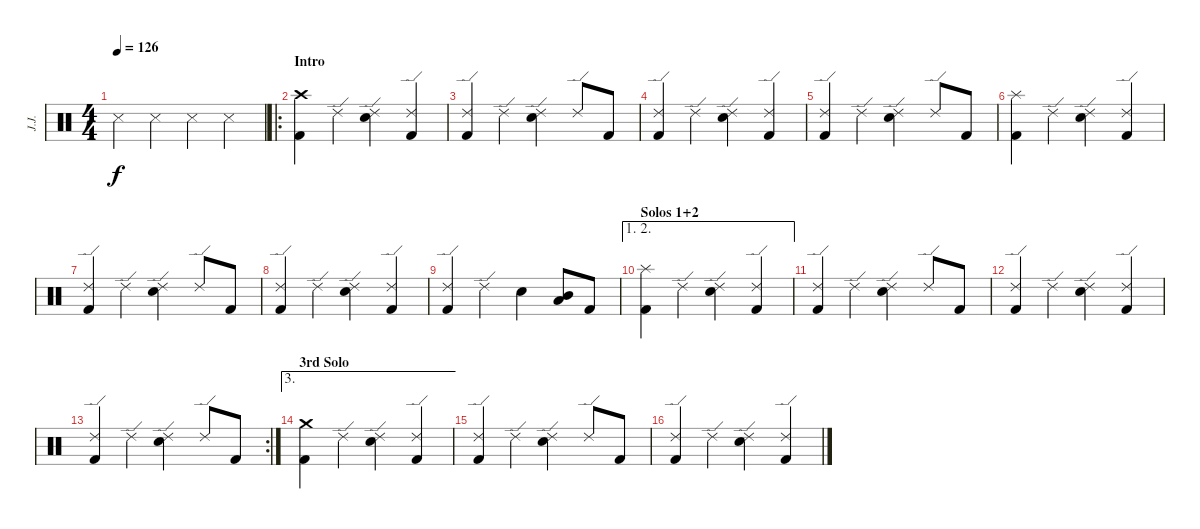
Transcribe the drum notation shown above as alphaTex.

\track ("J.J." "J.J.") {instrument percussion}
\staff {score}
\articulation defaults
\ts (4 4)
\tempo 126
\clef neutral
\ks c "Metronome (hit)".4{dy f volume 13} "Metronome (hit)".4 "Metronome (hit)".4 "Metronome (hit)".4
|
\ro
\section ("" "Intro")
("Crash high (hit)" "Kick (hit) 2").4 "Ride (edge) 2".4 ("Ride (edge) 2" "Electric Snare (hit)").4 ("Ride (edge) 2" "Kick (hit) 2").4 |
("Ride (edge) 2" "Kick (hit) 2").4 "Ride (edge) 2".4 ("Ride (edge) 2" "Electric Snare (hit)").4 "Ride (edge) 2".8 "Kick (hit) 2".8 |
("Ride (edge) 2" "Kick (hit) 2").4 "Ride (edge) 2".4 ("Ride (edge) 2" "Electric Snare (hit)").4 ("Ride (edge) 2" "Kick (hit) 2").4 |
("Ride (edge) 2" "Kick (hit) 2").4 "Ride (edge) 2".4 ("Ride (edge) 2" "Electric Snare (hit)").4 "Ride (edge) 2".8 "Kick (hit) 2".8 |
("Splash (hit)" "Kick (hit) 2").4 "Ride (edge) 2".4 ("Ride (edge) 2" "Electric Snare (hit)").4 ("Ride (edge) 2" "Kick (hit) 2").4 |
("Ride (edge) 2" "Kick (hit) 2").4 "Ride (edge) 2".4 ("Ride (edge) 2" "Electric Snare (hit)").4 "Ride (edge) 2".8 "Kick (hit) 2".8 |
("Ride (edge) 2" "Kick (hit) 2").4 "Ride (edge) 2".4 ("Ride (edge) 2" "Electric Snare (hit)").4 ("Ride (edge) 2" "Kick (hit) 2").4 |
("Ride (edge) 2" "Kick (hit) 2").4 "Ride (edge) 2".4 "Electric Snare (hit)".4 ("Mid Tom (hit)" "Low Tom (hit)").8 "Kick (hit) 2".8 |
\ae (1 2)
\section ("" "Solos 1+2")
("Splash (hit)" "Kick (hit) 2").4 "Ride (edge) 2".4 ("Ride (edge) 2" "Electric Snare (hit)").4 ("Ride (edge) 2" "Kick (hit) 2").4 |
("Ride (edge) 2" "Kick (hit) 2").4 "Ride (edge) 2".4 ("Ride (edge) 2" "Electric Snare (hit)").4 "Ride (edge) 2".8 "Kick (hit) 2".8 |
("Ride (edge) 2" "Kick (hit) 2").4 "Ride (edge) 2".4 ("Ride (edge) 2" "Electric Snare (hit)").4 ("Ride (edge) 2" "Kick (hit) 2").4 |
\rc 2
("Ride (edge) 2" "Kick (hit) 2").4 "Ride (edge) 2".4 ("Ride (edge) 2" "Electric Snare (hit)").4 "Ride (edge) 2".8 "Kick (hit) 2".8 |
\ae 3
\section ("" "3rd Solo")
("Crash medium (hit)" "Kick (hit) 2").4 "Ride (edge) 2".4 ("Ride (edge) 2" "Electric Snare (hit)").4 ("Ride (edge) 2" "Kick (hit) 2").4 |
("Ride (edge) 2" "Kick (hit) 2").4 "Ride (edge) 2".4 ("Ride (edge) 2" "Electric Snare (hit)").4 "Ride (edge) 2".8 "Kick (hit) 2".8 |
("Ride (edge) 2" "Kick (hit) 2").4 "Ride (edge) 2".4 ("Ride (edge) 2" "Electric Snare (hit)").4 ("Ride (edge) 2" "Kick (hit) 2").4
